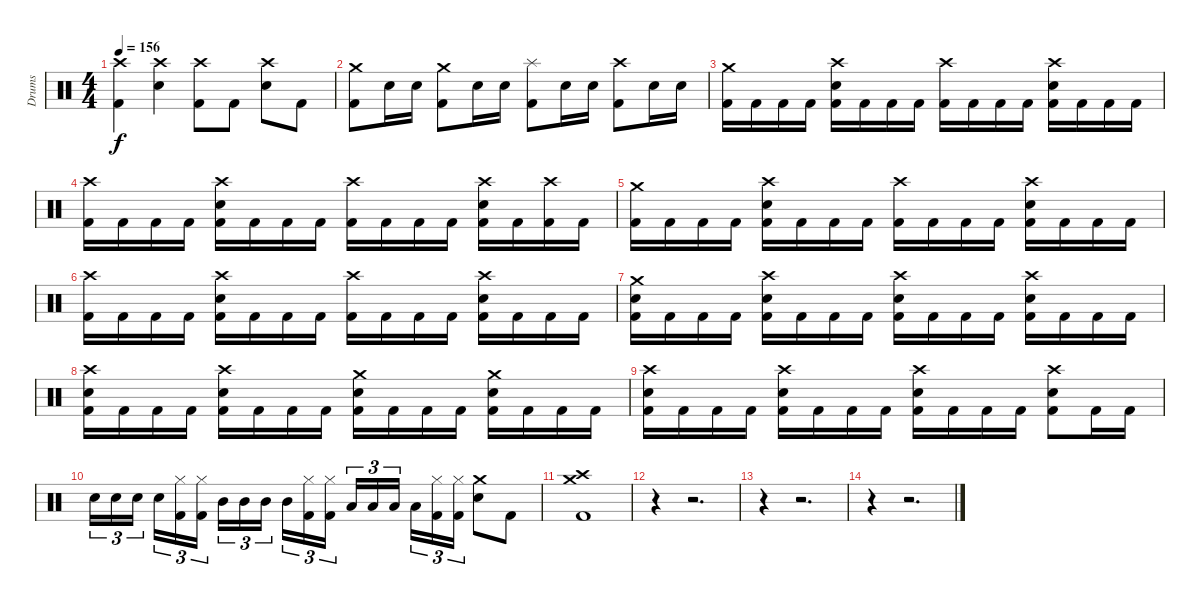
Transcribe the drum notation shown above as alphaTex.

\track ("Drums" "Drums") {instrument percussion}
\staff {score}
\articulation defaults
\ts (4 4)
\tempo 156
\clef neutral
\ks c
("Crash high (hit)" "Kick (hit) 2").4{dy f} ("Crash high (hit)" "Snare (hit) 2").4 ("Crash high (hit)" "Kick (hit) 2").8 "Kick (hit) 2".8 ("Crash high (hit)" "Snare (hit) 2").8 "Kick (hit) 2".8 |
("Crash medium (hit)" "Kick (hit) 2").8 "Snare (hit) 2".16 "Snare (hit) 2".16 ("Crash medium (hit)" "Kick (hit) 2").8 "Snare (hit) 2".16 "Snare (hit) 2".16 ("Splash (hit)" "Kick (hit) 2").8 "Snare (hit) 2".16 "Snare (hit) 2".16 ("Crash high (hit)" "Kick (hit) 2").8 "Snare (hit) 2".16 "Snare (hit) 2".16 |
("Crash medium (hit)" "Kick (hit) 2").16 "Kick (hit) 2".16 "Kick (hit) 2".16 "Kick (hit) 2".16 ("Crash high (hit)" "Snare (hit) 2" "Kick (hit) 2").16 "Kick (hit) 2".16 "Kick (hit) 2".16 "Kick (hit) 2".16 ("Crash high (hit)" "Kick (hit) 2").16 "Kick (hit) 2".16 "Kick (hit) 2".16 "Kick (hit) 2".16 ("Crash high (hit)" "Snare (hit) 2" "Kick (hit) 2").16 "Kick (hit) 2".16 "Kick (hit) 2".16 "Kick (hit) 2".16 |
("Crash high (hit)" "Kick (hit) 2").16 "Kick (hit) 2".16 "Kick (hit) 2".16 "Kick (hit) 2".16 ("Crash high (hit)" "Snare (hit) 2" "Kick (hit) 2").16 "Kick (hit) 2".16 "Kick (hit) 2".16 "Kick (hit) 2".16 ("Crash high (hit)" "Kick (hit) 2").16 "Kick (hit) 2".16 "Kick (hit) 2".16 "Kick (hit) 2".16 ("Crash high (hit)" "Snare (hit) 2" "Kick (hit) 2").16 "Kick (hit) 2".16 ("Crash high (hit)" "Kick (hit) 2").16 "Kick (hit) 2".16 |
("Crash medium (hit)" "Kick (hit) 2").16 "Kick (hit) 2".16 "Kick (hit) 2".16 "Kick (hit) 2".16 ("Crash high (hit)" "Snare (hit) 2" "Kick (hit) 2").16 "Kick (hit) 2".16 "Kick (hit) 2".16 "Kick (hit) 2".16 ("Crash high (hit)" "Kick (hit) 2").16 "Kick (hit) 2".16 "Kick (hit) 2".16 "Kick (hit) 2".16 ("Crash high (hit)" "Snare (hit) 2" "Kick (hit) 2").16 "Kick (hit) 2".16 "Kick (hit) 2".16 "Kick (hit) 2".16 |
("Crash high (hit)" "Kick (hit) 2").16 "Kick (hit) 2".16 "Kick (hit) 2".16 "Kick (hit) 2".16 ("Crash high (hit)" "Snare (hit) 2" "Kick (hit) 2").16 "Kick (hit) 2".16 "Kick (hit) 2".16 "Kick (hit) 2".16 ("Crash high (hit)" "Kick (hit) 2").16 "Kick (hit) 2".16 "Kick (hit) 2".16 "Kick (hit) 2".16 ("Crash high (hit)" "Snare (hit) 2" "Kick (hit) 2").16 "Kick (hit) 2".16 "Kick (hit) 2".16 "Kick (hit) 2".16 |
("Crash medium (hit)" "Snare (hit) 2" "Kick (hit) 2").16 "Kick (hit) 2".16 "Kick (hit) 2".16 "Kick (hit) 2".16 ("Crash high (hit)" "Snare (hit) 2" "Kick (hit) 2").16 "Kick (hit) 2".16 "Kick (hit) 2".16 "Kick (hit) 2".16 ("Crash high (hit)" "Snare (hit) 2" "Kick (hit) 2").16 "Kick (hit) 2".16 "Kick (hit) 2".16 "Kick (hit) 2".16 ("Crash high (hit)" "Snare (hit) 2" "Kick (hit) 2").16 "Kick (hit) 2".16 "Kick (hit) 2".16 "Kick (hit) 2".16 |
("Crash high (hit)" "Snare (hit) 2" "Kick (hit) 2").16 "Kick (hit) 2".16 "Kick (hit) 2".16 "Kick (hit) 2".16 ("Crash high (hit)" "Snare (hit) 2" "Kick (hit) 2").16 "Kick (hit) 2".16 "Kick (hit) 2".16 "Kick (hit) 2".16 ("Crash medium (hit)" "Snare (hit) 2" "Kick (hit) 2").16 "Kick (hit) 2".16 "Kick (hit) 2".16 "Kick (hit) 2".16 ("Crash medium (hit)" "Snare (hit) 2" "Kick (hit) 2").16 "Kick (hit) 2".16 "Kick (hit) 2".16 "Kick (hit) 2".16 |
("Crash high (hit)" "Snare (hit) 2" "Kick (hit) 2").16 "Kick (hit) 2".16 "Kick (hit) 2".16 "Kick (hit) 2".16 ("Crash high (hit)" "Snare (hit) 2" "Kick (hit) 2").16 "Kick (hit) 2".16 "Kick (hit) 2".16 "Kick (hit) 2".16 ("Crash high (hit)" "Snare (hit) 2" "Kick (hit) 2").16 "Kick (hit) 2".16 "Kick (hit) 2".16 "Kick (hit) 2".16 ("Crash high (hit)" "Snare (hit) 2" "Kick (hit) 2").8 "Kick (hit) 2".16 "Kick (hit) 2".16 |
"Snare (hit) 2".16{tu (3 2)} "Snare (hit) 2".16{tu (3 2)} "Snare (hit) 2".16{tu (3 2)} "Snare (hit) 2".16{tu (3 2)} ("Hi-Hat (closed)" "Kick (hit) 2").16{tu (3 2)} ("Hi-Hat (closed)" "Kick (hit) 2").16{tu (3 2)} "Mid Tom (hit)".16{tu (3 2)} "Mid Tom (hit)".16{tu (3 2)} "Mid Tom (hit)".16{tu (3 2)} "Mid Tom (hit)".16{tu (3 2)} ("Hi-Hat (closed)" "Kick (hit) 2").16{tu (3 2)} ("Hi-Hat (closed)" "Kick (hit) 2").16{tu (3 2)} "Low Tom (hit)".16{tu (3 2)} "Low Tom (hit)".16{tu (3 2)} "Low Tom (hit)".16{tu (3 2)} "Low Tom (hit)".16{tu (3 2)} ("Hi-Hat (closed)" "Kick (hit) 2").16{tu (3 2)} ("Hi-Hat (closed)" "Kick (hit) 2").16{tu (3 2)} ("Crash medium (hit)" "Snare (hit) 2").8 "Kick (hit) 2".8 |
("Crash high (hit)" "Crash medium (hit)" "Kick (hit) 2").1 |
r.4 r.2{d} |
r.4 r.2{d} |
r.4 r.2{d}
